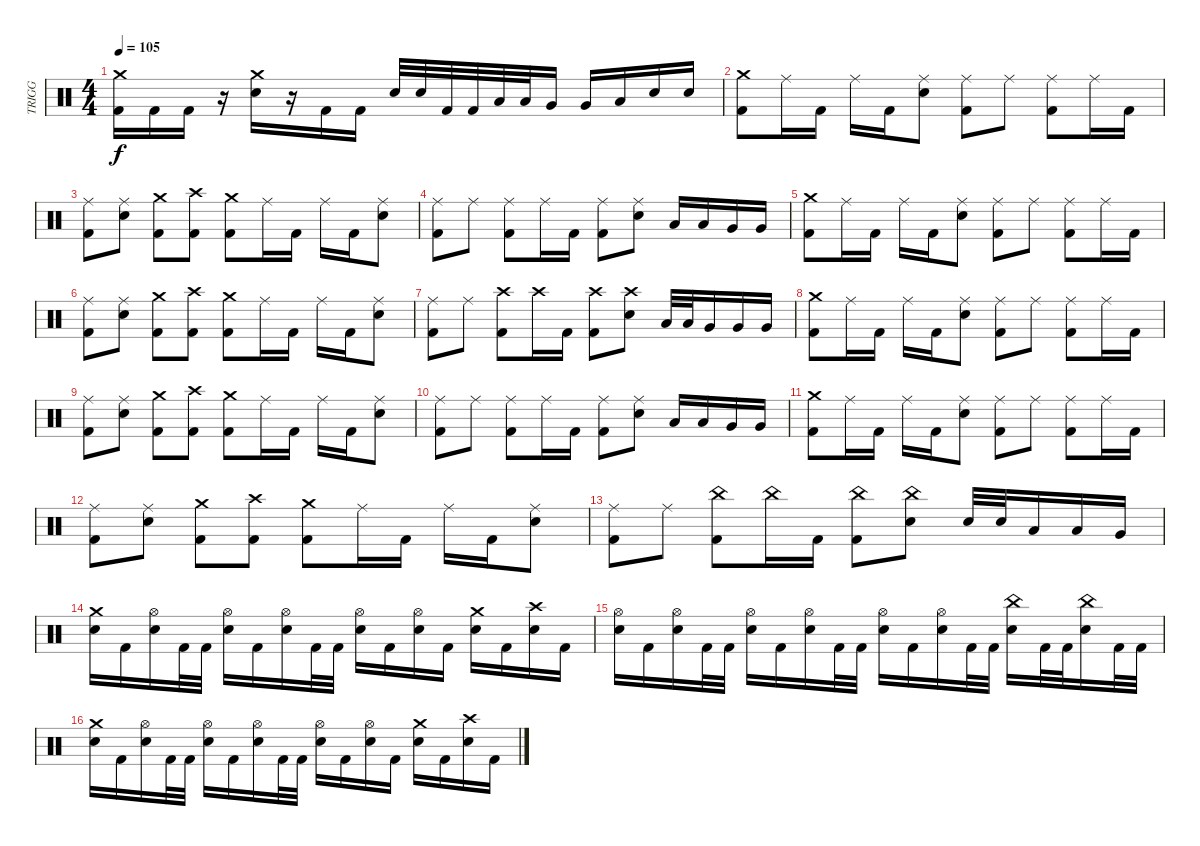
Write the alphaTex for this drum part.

\track ("TRIGG" "TRIGG") {instrument percussion}
\staff {score}
\articulation defaults
\ts (4 4)
\tempo 105
\clef neutral
\ks c
("Crash medium (hit)" "Kick (hit) 2").16{dy f} "Kick (hit) 2".16 "Kick (hit) 2".16 r.16 ("Crash medium (hit)" "Electric Snare (hit)").16 r.16 "Kick (hit) 2".16 "Kick (hit) 2".16 "Electric Snare (hit)".32 "Electric Snare (hit)".32 "Kick (hit) 2".32 "Kick (hit) 2".32 "Low Tom (hit)".32 "Low Tom (hit)".32 "Very Low Tom (hit)".16 "Very Low Tom (hit)".16 "Low Floor Tom (hit)".16 "Electric Snare (hit)".16 "Electric Snare (hit)".16 |
("Crash medium (hit)" "Kick (hit) 2").8 "Ride (middle)".16 "Kick (hit) 2".16 "Ride (middle)".16 "Kick (hit) 2".16 ("Ride (middle)" "Electric Snare (hit)").8 ("Ride (middle)" "Kick (hit) 2").8 "Ride (middle)".8 ("Ride (middle)" "Kick (hit) 2").8 "Ride (middle)".16 "Kick (hit) 2".16 |
("Ride (middle)" "Kick (hit) 2").8 ("Ride (middle)" "Electric Snare (hit)").8 ("Crash medium (hit)" "Kick (hit) 2").8 ("Crash high (hit)" "Kick (hit) 2").8 ("Crash medium (hit)" "Kick (hit) 2").8 "Ride (middle)".16 "Kick (hit) 2".16 "Ride (middle)".16 "Kick (hit) 2".16 ("Ride (middle)" "Electric Snare (hit)").8 |
("Ride (middle)" "Kick (hit) 2").8 "Ride (middle)".8 ("Ride (middle)" "Kick (hit) 2").8 "Ride (middle)".16 "Kick (hit) 2".16 ("Ride (middle)" "Kick (hit) 2").8 ("Ride (middle)" "Electric Snare (hit)").8 "Low Tom (hit)".16 "Low Tom (hit)".16 "Very Low Tom (hit)".16 "Very Low Tom (hit)".16 |
("Crash medium (hit)" "Kick (hit) 2").8 "Ride (middle)".16 "Kick (hit) 2".16 "Ride (middle)".16 "Kick (hit) 2".16 ("Ride (middle)" "Electric Snare (hit)").8 ("Ride (middle)" "Kick (hit) 2").8 "Ride (middle)".8 ("Ride (middle)" "Kick (hit) 2").8 "Ride (middle)".16 "Kick (hit) 2".16 |
("Ride (middle)" "Kick (hit) 2").8 ("Ride (middle)" "Electric Snare (hit)").8 ("Crash medium (hit)" "Kick (hit) 2").8 ("Crash high (hit)" "Kick (hit) 2").8 ("Crash medium (hit)" "Kick (hit) 2").8 "Ride (middle)".16 "Kick (hit) 2".16 "Ride (middle)".16 "Kick (hit) 2".16 ("Ride (middle)" "Electric Snare (hit)").8 |
("Ride (middle)" "Kick (hit) 2").8 "Ride (middle)".8 ("Crash high (hit)" "Kick (hit) 2").8 "Crash high (hit)".16 "Kick (hit) 2".16 ("Crash high (hit)" "Kick (hit) 2").8 ("Crash high (hit)" "Electric Snare (hit)").8 "Low Tom (hit)".32 "Low Tom (hit)".32 "Very Low Tom (hit)".16 "Very Low Tom (hit)".16 "Very Low Tom (hit)".16 |
("Crash medium (hit)" "Kick (hit) 2").8 "Ride (middle)".16 "Kick (hit) 2".16 "Ride (middle)".16 "Kick (hit) 2".16 ("Ride (middle)" "Electric Snare (hit)").8 ("Ride (middle)" "Kick (hit) 2").8 "Ride (middle)".8 ("Ride (middle)" "Kick (hit) 2").8 "Ride (middle)".16 "Kick (hit) 2".16 |
("Ride (middle)" "Kick (hit) 2").8 ("Ride (middle)" "Electric Snare (hit)").8 ("Crash medium (hit)" "Kick (hit) 2").8 ("Crash high (hit)" "Kick (hit) 2").8 ("Crash medium (hit)" "Kick (hit) 2").8 "Ride (middle)".16 "Kick (hit) 2".16 "Ride (middle)".16 "Kick (hit) 2".16 ("Ride (middle)" "Electric Snare (hit)").8 |
("Ride (middle)" "Kick (hit) 2").8 "Ride (middle)".8 ("Ride (middle)" "Kick (hit) 2").8 "Ride (middle)".16 "Kick (hit) 2".16 ("Ride (middle)" "Kick (hit) 2").8 ("Ride (middle)" "Electric Snare (hit)").8 "Low Tom (hit)".16 "Low Tom (hit)".16 "Very Low Tom (hit)".16 "Very Low Tom (hit)".16 |
("Crash medium (hit)" "Kick (hit) 2").8 "Ride (middle)".16 "Kick (hit) 2".16 "Ride (middle)".16 "Kick (hit) 2".16 ("Ride (middle)" "Electric Snare (hit)").8 ("Ride (middle)" "Kick (hit) 2").8 "Ride (middle)".8 ("Ride (middle)" "Kick (hit) 2").8 "Ride (middle)".16 "Kick (hit) 2".16 |
("Ride (middle)" "Kick (hit) 2").8 ("Ride (middle)" "Electric Snare (hit)").8 ("Crash medium (hit)" "Kick (hit) 2").8 ("Crash high (hit)" "Kick (hit) 2").8 ("Crash medium (hit)" "Kick (hit) 2").8 "Ride (middle)".16 "Kick (hit) 2".16 "Ride (middle)".16 "Kick (hit) 2".16 ("Ride (middle)" "Electric Snare (hit)").8 |
("Ride (middle)" "Kick (hit) 2").8 "Ride (middle)".8 ("China (hit)" "Kick (hit) 2").8 "China (hit)".16 "Kick (hit) 2".16 ("China (hit)" "Kick (hit) 2").8 ("China (hit)" "Electric Snare (hit)").8 "Electric Snare (hit)".32 "Electric Snare (hit)".32 "Low Tom (hit)".16 "Low Tom (hit)".16 "Very Low Tom (hit)".16 |
("Crash medium (hit)" "Electric Snare (hit)").16 "Kick (hit) 2".16 ("Hi-Hat (open)" "Electric Snare (hit)").16 "Kick (hit) 2".32 "Kick (hit) 2".32 ("Hi-Hat (open)" "Electric Snare (hit)").16 "Kick (hit) 2".16 ("Hi-Hat (open)" "Electric Snare (hit)").16 "Kick (hit) 2".32 "Kick (hit) 2".32 ("Hi-Hat (open)" "Electric Snare (hit)").16 "Kick (hit) 2".16 ("Hi-Hat (open)" "Electric Snare (hit)").16 "Kick (hit) 2".16 ("Crash medium (hit)" "Electric Snare (hit)").16 "Kick (hit) 2".16 ("Crash high (hit)" "Electric Snare (hit)").16 "Kick (hit) 2".16 |
("Hi-Hat (open)" "Electric Snare (hit)").16 "Kick (hit) 2".16 ("Hi-Hat (open)" "Electric Snare (hit)").16 "Kick (hit) 2".32 "Kick (hit) 2".32 ("Hi-Hat (open)" "Electric Snare (hit)").16 "Kick (hit) 2".16 ("Hi-Hat (open)" "Electric Snare (hit)").16 "Kick (hit) 2".32 "Kick (hit) 2".32 ("Hi-Hat (open)" "Electric Snare (hit)").16 "Kick (hit) 2".16 ("Hi-Hat (open)" "Electric Snare (hit)").16 "Kick (hit) 2".32 "Kick (hit) 2".32 ("China (hit)" "Electric Snare (hit)").16 "Kick (hit) 2".32 "Kick (hit) 2".32 ("China (hit)" "Electric Snare (hit)").16 "Kick (hit) 2".32 "Kick (hit) 2".32 |
("Crash medium (hit)" "Electric Snare (hit)").16 "Kick (hit) 2".16 ("Hi-Hat (open)" "Electric Snare (hit)").16 "Kick (hit) 2".32 "Kick (hit) 2".32 ("Hi-Hat (open)" "Electric Snare (hit)").16 "Kick (hit) 2".16 ("Hi-Hat (open)" "Electric Snare (hit)").16 "Kick (hit) 2".32 "Kick (hit) 2".32 ("Hi-Hat (open)" "Electric Snare (hit)").16 "Kick (hit) 2".16 ("Hi-Hat (open)" "Electric Snare (hit)").16 "Kick (hit) 2".16 ("Crash medium (hit)" "Electric Snare (hit)").16 "Kick (hit) 2".16 ("Crash high (hit)" "Electric Snare (hit)").16 "Kick (hit) 2".16
